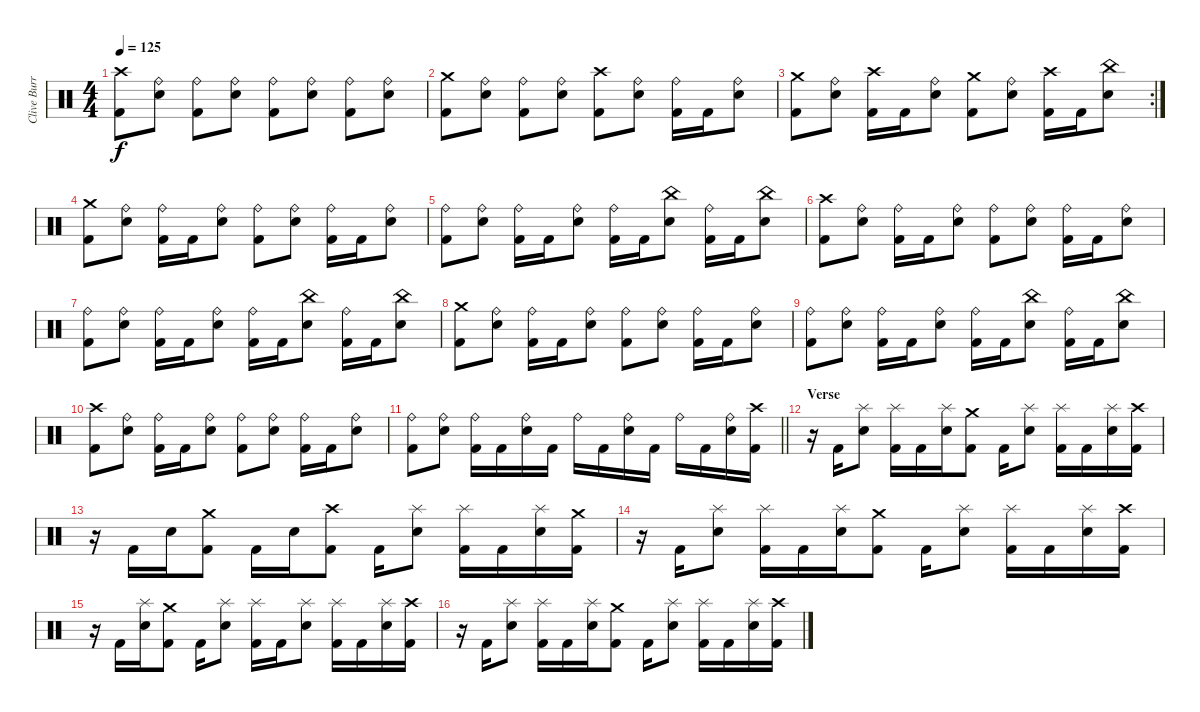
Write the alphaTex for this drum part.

\track ("Clive Burr" "Clive Burr") {instrument percussion}
\staff {score}
\articulation defaults
\ts (4 4)
\tempo 125
\clef neutral
\ks c
("Crash high (hit)" "Kick (hit) 2").8{dy f} ("Ride (bell)" "Snare (hit) 2").8 ("Ride (bell)" "Kick (hit) 2").8 ("Ride (bell)" "Snare (hit) 2").8 ("Ride (bell)" "Kick (hit) 2").8 ("Ride (bell)" "Snare (hit) 2").8 ("Ride (bell)" "Kick (hit) 2").8 ("Ride (bell)" "Snare (hit) 2").8 |
("Crash medium (hit)" "Kick (hit) 2").8 ("Ride (bell)" "Snare (hit) 2").8 ("Ride (bell)" "Kick (hit) 2").8 ("Ride (bell)" "Snare (hit) 2").8 ("Crash high (hit)" "Kick (hit) 2").8 ("Ride (bell)" "Snare (hit) 2").8 ("Ride (bell)" "Kick (hit) 2").16 "Kick (hit) 2".16 ("Ride (bell)" "Snare (hit) 2").8 |
\rc 2
("Crash medium (hit)" "Kick (hit) 2").8 ("Ride (bell)" "Snare (hit) 2").8 ("Crash high (hit)" "Kick (hit) 2").16 "Kick (hit) 2".16 ("Ride (bell)" "Snare (hit) 2").8 ("Crash medium (hit)" "Kick (hit) 2").8 ("Ride (bell)" "Snare (hit) 2").8 ("Crash high (hit)" "Kick (hit) 2").16 "Kick (hit) 2".16 ("China (hit)" "Snare (hit) 2").8 |
("Crash medium (hit)" "Kick (hit) 2").8 ("Ride (bell)" "Snare (hit) 2").8 ("Ride (bell)" "Kick (hit) 2").16 "Kick (hit) 2".16 ("Ride (bell)" "Snare (hit) 2").8 ("Ride (bell)" "Kick (hit) 2").8 ("Ride (bell)" "Snare (hit) 2").8 ("Ride (bell)" "Kick (hit) 2").16 "Kick (hit) 2".16 ("Ride (bell)" "Snare (hit) 2").8 |
("Ride (bell)" "Kick (hit) 2").8 ("Ride (bell)" "Snare (hit) 2").8 ("Ride (bell)" "Kick (hit) 2").16 "Kick (hit) 2".16 ("Ride (bell)" "Snare (hit) 2").8 ("Ride (bell)" "Kick (hit) 2").16 "Kick (hit) 2".16 ("China (hit)" "Snare (hit) 2").8 ("Ride (bell)" "Kick (hit) 2").16 "Kick (hit) 2".16 ("China (hit)" "Snare (hit) 2").8 |
("Crash high (hit)" "Kick (hit) 2").8 ("Ride (bell)" "Snare (hit) 2").8 ("Ride (bell)" "Kick (hit) 2").16 "Kick (hit) 2".16 ("Ride (bell)" "Snare (hit) 2").8 ("Ride (bell)" "Kick (hit) 2").8 ("Ride (bell)" "Snare (hit) 2").8 ("Ride (bell)" "Kick (hit) 2").16 "Kick (hit) 2".16 ("Ride (bell)" "Snare (hit) 2").8 |
("Ride (bell)" "Kick (hit) 2").8 ("Ride (bell)" "Snare (hit) 2").8 ("Ride (bell)" "Kick (hit) 2").16 "Kick (hit) 2".16 ("Ride (bell)" "Snare (hit) 2").8 ("Ride (bell)" "Kick (hit) 2").16 "Kick (hit) 2".16 ("China (hit)" "Snare (hit) 2").8 ("Ride (bell)" "Kick (hit) 2").16 "Kick (hit) 2".16 ("China (hit)" "Snare (hit) 2").8 |
("Crash medium (hit)" "Kick (hit) 2").8 ("Ride (bell)" "Snare (hit) 2").8 ("Ride (bell)" "Kick (hit) 2").16 "Kick (hit) 2".16 ("Ride (bell)" "Snare (hit) 2").8 ("Ride (bell)" "Kick (hit) 2").8 ("Ride (bell)" "Snare (hit) 2").8 ("Ride (bell)" "Kick (hit) 2").16 "Kick (hit) 2".16 ("Ride (bell)" "Snare (hit) 2").8 |
("Ride (bell)" "Kick (hit) 2").8 ("Ride (bell)" "Snare (hit) 2").8 ("Ride (bell)" "Kick (hit) 2").16 "Kick (hit) 2".16 ("Ride (bell)" "Snare (hit) 2").8 ("Ride (bell)" "Kick (hit) 2").16 "Kick (hit) 2".16 ("China (hit)" "Snare (hit) 2").8 ("Ride (bell)" "Kick (hit) 2").16 "Kick (hit) 2".16 ("China (hit)" "Snare (hit) 2").8 |
("Crash high (hit)" "Kick (hit) 2").8 ("Ride (bell)" "Snare (hit) 2").8 ("Ride (bell)" "Kick (hit) 2").16 "Kick (hit) 2".16 ("Ride (bell)" "Snare (hit) 2").8 ("Ride (bell)" "Kick (hit) 2").8 ("Ride (bell)" "Snare (hit) 2").8 ("Ride (bell)" "Kick (hit) 2").16 "Kick (hit) 2".16 ("Ride (bell)" "Snare (hit) 2").8 |
\barLineRight lightlight
("Ride (bell)" "Kick (hit) 2").8 ("Ride (bell)" "Snare (hit) 2").8 ("Ride (bell)" "Kick (hit) 2").16 "Kick (hit) 2".16 ("Ride (bell)" "Snare (hit) 2").16 "Kick (hit) 2".16 "Ride (bell)".16 "Kick (hit) 2".16 ("Ride (bell)" "Snare (hit) 2").16 "Kick (hit) 2".16 "Ride (bell)".16 "Kick (hit) 2".16 ("Ride (bell)" "Snare (hit) 2").16 ("Crash high (hit)" "Kick (hit) 2").16 |
\section ("" "Verse")
r.16 "Kick (hit) 2".16 ("Splash (hit)" "Snare (hit) 2").8 ("Splash (hit)" "Kick (hit) 2").16 "Kick (hit) 2".16 ("Splash (hit)" "Snare (hit) 2").16 ("Crash medium (hit)" "Kick (hit) 2").8 "Kick (hit) 2".16 ("Splash (hit)" "Snare (hit) 2").8 ("Splash (hit)" "Kick (hit) 2").16 "Kick (hit) 2".16 ("Splash (hit)" "Snare (hit) 2").16 ("Crash high (hit)" "Kick (hit) 2").16 |
r.16 "Kick (hit) 2".16 "Snare (hit) 2".16 ("Crash medium (hit)" "Kick (hit) 2").8 "Kick (hit) 2".16 "Snare (hit) 2".16 ("Crash high (hit)" "Kick (hit) 2").8 "Kick (hit) 2".16 ("Splash (hit)" "Snare (hit) 2").8 ("Splash (hit)" "Kick (hit) 2").16 "Kick (hit) 2".16 ("Splash (hit)" "Snare (hit) 2").16 ("Crash medium (hit)" "Kick (hit) 2").16 |
r.16 "Kick (hit) 2".16 ("Splash (hit)" "Snare (hit) 2").8 ("Splash (hit)" "Kick (hit) 2").16 "Kick (hit) 2".16 ("Splash (hit)" "Snare (hit) 2").16 ("Crash medium (hit)" "Kick (hit) 2").8 "Kick (hit) 2".16 ("Splash (hit)" "Snare (hit) 2").8 ("Splash (hit)" "Kick (hit) 2").16 "Kick (hit) 2".16 ("Splash (hit)" "Snare (hit) 2").16 ("Crash high (hit)" "Kick (hit) 2").16 |
r.16 "Kick (hit) 2".16 ("Splash (hit)" "Snare (hit) 2").16 ("Crash medium (hit)" "Kick (hit) 2").8 "Kick (hit) 2".16 ("Splash (hit)" "Snare (hit) 2").8 ("Splash (hit)" "Kick (hit) 2").16 "Kick (hit) 2".16 ("Splash (hit)" "Snare (hit) 2").8 ("Splash (hit)" "Kick (hit) 2").16 "Kick (hit) 2".16 ("Splash (hit)" "Snare (hit) 2").16 ("Crash high (hit)" "Kick (hit) 2").16 |
r.16 "Kick (hit) 2".16 ("Splash (hit)" "Snare (hit) 2").8 ("Splash (hit)" "Kick (hit) 2").16 "Kick (hit) 2".16 ("Splash (hit)" "Snare (hit) 2").16 ("Crash medium (hit)" "Kick (hit) 2").8 "Kick (hit) 2".16 ("Splash (hit)" "Snare (hit) 2").8 ("Splash (hit)" "Kick (hit) 2").16 "Kick (hit) 2".16 ("Splash (hit)" "Snare (hit) 2").16 ("Crash high (hit)" "Kick (hit) 2").16
